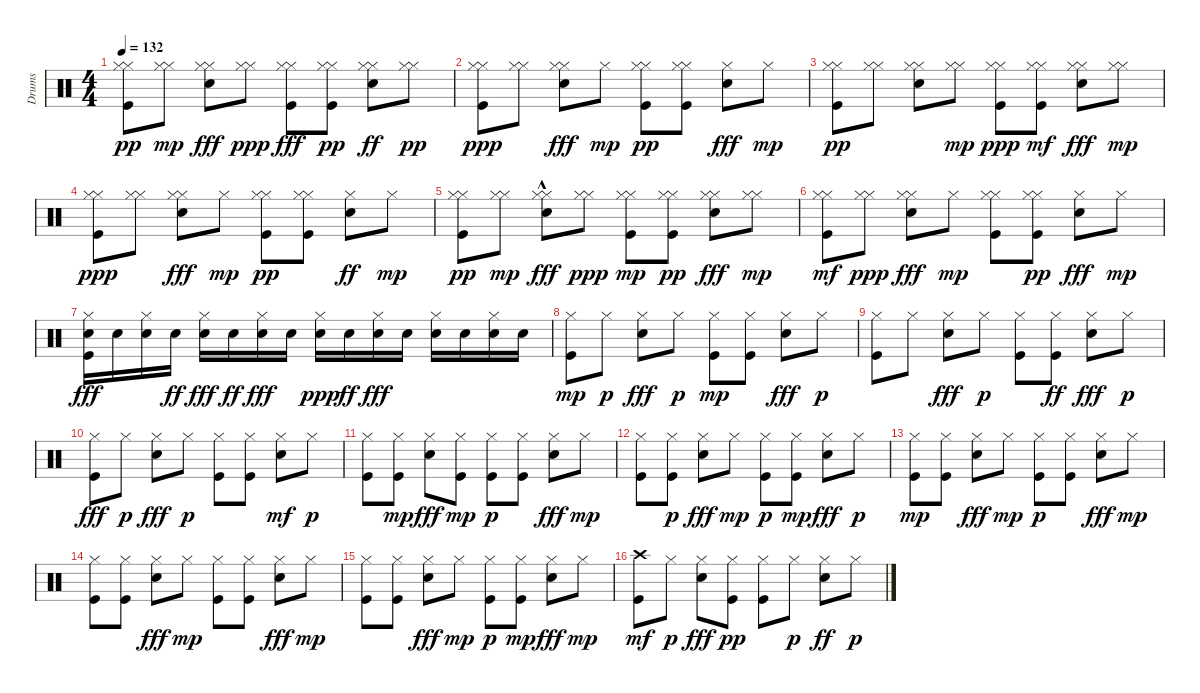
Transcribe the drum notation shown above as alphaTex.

\track ("Drums" "Drums") {instrument percussion}
\staff {score}
\articulation defaults
\ts (4 4)
\tempo 132
\clef neutral
\ks c
("Kick (hit)" "Hi-Hat (closed)" "Hi-Hat (closed)").8{dy pp} ("Hi-Hat (closed)" "Hi-Hat (closed)").8{dy mp} ("Hi-Hat (closed)" "Hi-Hat (closed)" "Snare (hit) 2").8{dy fff} ("Hi-Hat (closed)" "Hi-Hat (closed)").8{dy ppp} ("Hi-Hat (closed)" "Hi-Hat (closed)" "Kick (hit)").8{dy fff} ("Kick (hit)" "Hi-Hat (closed)" "Hi-Hat (closed)").8{dy pp} ("Hi-Hat (closed)" "Snare (hit) 2" "Hi-Hat (closed)").8{dy ff} ("Hi-Hat (closed)" "Hi-Hat (closed)").8{dy pp} |
("Kick (hit)" "Hi-Hat (closed)" "Hi-Hat (closed)").8{dy ppp} ("Hi-Hat (closed)" "Hi-Hat (closed)").8 ("Hi-Hat (closed)" "Hi-Hat (closed)" "Snare (hit) 2").8{dy fff} "Hi-Hat (closed)".8{dy mp} ("Kick (hit)" "Hi-Hat (closed)" "Hi-Hat (closed)").8{dy pp} ("Hi-Hat (closed)" "Kick (hit)" "Hi-Hat (closed)").8 ("Hi-Hat (closed)" "Snare (hit) 2").8{dy fff} "Hi-Hat (closed)".8{dy mp} |
("Kick (hit)" "Hi-Hat (closed)" "Hi-Hat (closed)").8{dy pp} ("Hi-Hat (closed)" "Hi-Hat (closed)").8 ("Hi-Hat (closed)" "Snare (hit) 2" "Hi-Hat (closed)").8 ("Hi-Hat (closed)" "Hi-Hat (closed)").8{dy mp} ("Kick (hit)" "Hi-Hat (closed)" "Hi-Hat (closed)").8{dy ppp} ("Kick (hit)" "Hi-Hat (closed)" "Hi-Hat (closed)").8{dy mf} ("Hi-Hat (closed)" "Hi-Hat (closed)" "Snare (hit) 2").8{dy fff} ("Hi-Hat (closed)" "Hi-Hat (closed)").8{dy mp} |
("Kick (hit)" "Hi-Hat (closed)" "Hi-Hat (closed)").8{dy ppp} ("Hi-Hat (closed)" "Hi-Hat (closed)").8 ("Hi-Hat (closed)" "Hi-Hat (closed)" "Snare (hit) 2").8{dy fff} "Hi-Hat (closed)".8{dy mp} ("Kick (hit)" "Hi-Hat (closed)" "Hi-Hat (closed)").8{dy pp} ("Hi-Hat (closed)" "Kick (hit)" "Hi-Hat (closed)").8 ("Snare (hit) 2" "Hi-Hat (closed)").8{dy ff} "Hi-Hat (closed)".8{dy mp} |
("Kick (hit)" "Hi-Hat (closed)" "Hi-Hat (closed)").8{dy pp} ("Hi-Hat (closed)" "Hi-Hat (closed)").8{dy mp} ("Hi-Hat (closed)" "Hi-Hat (closed)" "Snare (hit) 2"{hac}).8{dy fff} ("Hi-Hat (closed)" "Hi-Hat (closed)").8{dy ppp} ("Kick (hit)" "Hi-Hat (closed)" "Hi-Hat (closed)").8{dy mp} ("Kick (hit)" "Hi-Hat (closed)" "Hi-Hat (closed)").8{dy pp} ("Hi-Hat (closed)" "Hi-Hat (closed)" "Snare (hit) 2").8{dy fff} ("Hi-Hat (closed)" "Hi-Hat (closed)").8{dy mp} |
("Kick (hit)" "Hi-Hat (closed)" "Hi-Hat (closed)").8{dy mf} ("Hi-Hat (closed)" "Hi-Hat (closed)").8{dy ppp} ("Hi-Hat (closed)" "Hi-Hat (closed)" "Snare (hit) 2").8{dy fff} "Hi-Hat (closed)".8{dy mp} ("Kick (hit)" "Hi-Hat (closed)" "Hi-Hat (closed)").8 ("Kick (hit)" "Hi-Hat (closed)" "Hi-Hat (closed)").8{dy pp} ("Hi-Hat (closed)" "Snare (hit) 2").8{dy fff} "Hi-Hat (closed)".8{dy mp} |
("Kick (hit)" "Hi-Hat (closed)" "Snare (hit) 2").16{dy fff} "Snare (hit) 2".16 ("Hi-Hat (closed)" "Snare (hit) 2").16 "Snare (hit) 2".16{dy ff} ("Hi-Hat (closed)" "Snare (hit) 2").16{dy fff} "Snare (hit) 2".16{dy ff} ("Hi-Hat (closed)" "Snare (hit) 2").16{dy fff} "Snare (hit) 2".16 ("Snare (hit) 2" "Hi-Hat (closed)").16{dy ppp} "Snare (hit) 2".16{dy ff} ("Hi-Hat (closed)" "Snare (hit) 2").16{dy fff} "Snare (hit) 2".16 ("Hi-Hat (closed)" "Snare (hit) 2").16 "Snare (hit) 2".16 ("Hi-Hat (closed)" "Snare (hit) 2").16 "Snare (hit) 2".16 |
("Kick (hit)" "Hi-Hat (closed)").8{dy mp} "Hi-Hat (closed)".8{dy p} ("Hi-Hat (closed)" "Snare (hit) 2").8{dy fff} "Hi-Hat (closed)".8{dy p} ("Kick (hit)" "Hi-Hat (closed)").8{dy mp} ("Kick (hit)" "Hi-Hat (closed)").8 ("Hi-Hat (closed)" "Snare (hit) 2").8{dy fff} "Hi-Hat (closed)".8{dy p} |
("Kick (hit)" "Hi-Hat (closed)").8 "Hi-Hat (closed)".8 ("Snare (hit) 2" "Hi-Hat (closed)").8{dy fff} "Hi-Hat (closed)".8{dy p} ("Kick (hit)" "Hi-Hat (closed)").8 ("Hi-Hat (closed)" "Kick (hit)").8{dy ff} ("Snare (hit) 2" "Hi-Hat (closed)").8{dy fff} "Hi-Hat (closed)".8{dy p} |
("Hi-Hat (closed)" "Kick (hit)").8{dy fff} "Hi-Hat (closed)".8{dy p} ("Hi-Hat (closed)" "Snare (hit) 2").8{dy fff} "Hi-Hat (closed)".8{dy p} ("Kick (hit)" "Hi-Hat (closed)").8 ("Kick (hit)" "Hi-Hat (closed)").8 ("Snare (hit) 2" "Hi-Hat (closed)").8{dy mf} "Hi-Hat (closed)".8{dy p} |
("Kick (hit)" "Hi-Hat (closed)").8 ("Kick (hit)" "Hi-Hat (closed)").8{dy mp} ("Hi-Hat (closed)" "Snare (hit) 2").8{dy fff} ("Kick (hit)" "Hi-Hat (closed)").8{dy mp} ("Kick (hit)" "Hi-Hat (closed)").8{dy p} ("Kick (hit)" "Hi-Hat (closed)").8 ("Hi-Hat (closed)" "Snare (hit) 2").8{dy fff} "Hi-Hat (closed)".8{dy mp} |
("Kick (hit)" "Hi-Hat (closed)").8 ("Kick (hit)" "Hi-Hat (closed)").8{dy p} ("Snare (hit) 2" "Hi-Hat (closed)").8{dy fff} "Hi-Hat (closed)".8{dy mp} ("Kick (hit)" "Hi-Hat (closed)").8{dy p} ("Kick (hit)" "Hi-Hat (closed)").8{dy mp} ("Hi-Hat (closed)" "Snare (hit) 2").8{dy fff} "Hi-Hat (closed)".8{dy p} |
("Kick (hit)" "Hi-Hat (closed)").8{dy mp} ("Kick (hit)" "Hi-Hat (closed)").8 ("Hi-Hat (closed)" "Snare (hit) 2").8{dy fff} "Hi-Hat (closed)".8{dy mp} ("Kick (hit)" "Hi-Hat (closed)").8{dy p} ("Kick (hit)" "Hi-Hat (closed)").8 ("Hi-Hat (closed)" "Snare (hit) 2").8{dy fff} "Hi-Hat (closed)".8{dy mp} |
("Kick (hit)" "Hi-Hat (closed)").8 ("Kick (hit)" "Hi-Hat (closed)").8 ("Hi-Hat (closed)" "Snare (hit) 2").8{dy fff} "Hi-Hat (closed)".8{dy mp} ("Kick (hit)" "Hi-Hat (closed)").8 ("Kick (hit)" "Hi-Hat (closed)").8 ("Snare (hit) 2" "Hi-Hat (closed)").8{dy fff} "Hi-Hat (closed)".8{dy mp} |
("Kick (hit)" "Hi-Hat (closed)").8 ("Kick (hit)" "Hi-Hat (closed)").8 ("Hi-Hat (closed)" "Snare (hit) 2").8{dy fff} "Hi-Hat (closed)".8{dy mp} ("Kick (hit)" "Hi-Hat (closed)").8{dy p} ("Kick (hit)" "Hi-Hat (closed)").8{dy mp} ("Hi-Hat (closed)" "Snare (hit) 2").8{dy fff} "Hi-Hat (closed)".8{dy mp} |
("Kick (hit)" "Crash high (hit)").8{dy mf} "Hi-Hat (closed)".8{dy p} ("Hi-Hat (closed)" "Snare (hit) 2").8{dy fff} ("Kick (hit)" "Hi-Hat (closed)").8{dy pp} ("Kick (hit)" "Hi-Hat (closed)").8 "Hi-Hat (closed)".8{dy p} ("Hi-Hat (closed)" "Snare (hit) 2").8{dy ff} "Hi-Hat (closed)".8{dy p}
